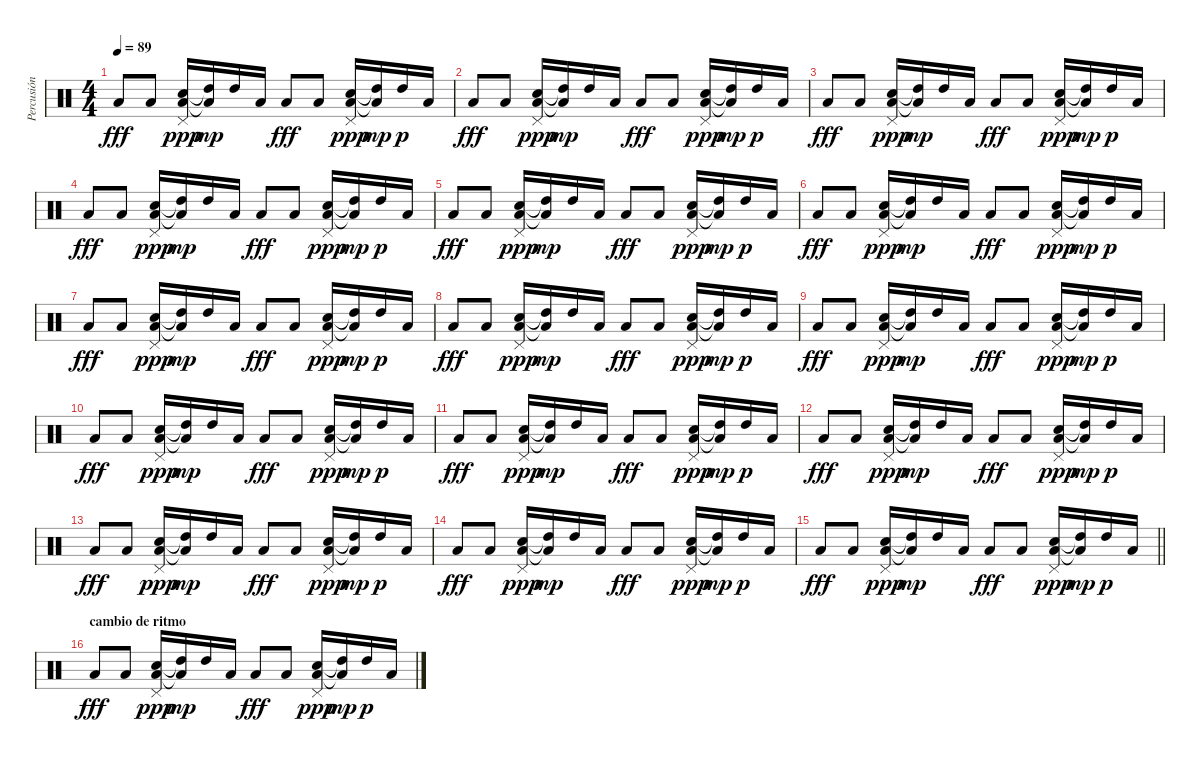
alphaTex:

\track ("Percusión" "Percusión") {instrument percussion}
\staff {score}
\articulation defaults
\ts (4 4)
\tempo 89
\clef neutral
\ks c "Low Floor Tom (hit)".8{dy fff} "Low Floor Tom (hit)".8
("Electric Snare (hit)" "Low Floor Tom (hit)" "Pedal Hi-Hat (hit)").16{dy ppp} ("High Tom (hit)"{t} "Low Floor Tom (hit)"{t}).16{dy mp} "High Tom (hit)".16 "Low Tom (hit)".16 "Low Floor Tom (hit)".8{dy fff} "Low Floor Tom (hit)".8 ("Electric Snare (hit)" "Low Floor Tom (hit)" "Pedal Hi-Hat (hit)").16{dy ppp} ("High Tom (hit)"{t} "Low Floor Tom (hit)"{t}).16{dy mp} "High Tom (hit)".16{dy p} "Low Tom (hit)".16 |
"Low Floor Tom (hit)".8{dy fff} "Low Floor Tom (hit)".8 ("Electric Snare (hit)" "Low Floor Tom (hit)" "Pedal Hi-Hat (hit)").16{dy ppp} ("High Tom (hit)"{t} "Low Floor Tom (hit)"{t}).16{dy mp} "High Tom (hit)".16 "Low Tom (hit)".16 "Low Floor Tom (hit)".8{dy fff} "Low Floor Tom (hit)".8 ("Electric Snare (hit)" "Low Floor Tom (hit)" "Pedal Hi-Hat (hit)").16{dy ppp} ("High Tom (hit)"{t} "Low Floor Tom (hit)"{t}).16{dy mp} "High Tom (hit)".16{dy p} "Low Tom (hit)".16 |
"Low Floor Tom (hit)".8{dy fff} "Low Floor Tom (hit)".8 ("Electric Snare (hit)" "Low Floor Tom (hit)" "Pedal Hi-Hat (hit)").16{dy ppp} ("High Tom (hit)"{t} "Low Floor Tom (hit)"{t}).16{dy mp} "High Tom (hit)".16 "Low Tom (hit)".16 "Low Floor Tom (hit)".8{dy fff} "Low Floor Tom (hit)".8 ("Electric Snare (hit)" "Low Floor Tom (hit)" "Pedal Hi-Hat (hit)").16{dy ppp} ("High Tom (hit)"{t} "Low Floor Tom (hit)"{t}).16{dy mp} "High Tom (hit)".16{dy p} "Low Tom (hit)".16 |
"Low Floor Tom (hit)".8{dy fff} "Low Floor Tom (hit)".8 ("Electric Snare (hit)" "Low Floor Tom (hit)" "Pedal Hi-Hat (hit)").16{dy ppp} ("High Tom (hit)"{t} "Low Floor Tom (hit)"{t}).16{dy mp} "High Tom (hit)".16 "Low Tom (hit)".16 "Low Floor Tom (hit)".8{dy fff} "Low Floor Tom (hit)".8 ("Electric Snare (hit)" "Low Floor Tom (hit)" "Pedal Hi-Hat (hit)").16{dy ppp} ("High Tom (hit)"{t} "Low Floor Tom (hit)"{t}).16{dy mp} "High Tom (hit)".16{dy p} "Low Tom (hit)".16 |
"Low Floor Tom (hit)".8{dy fff} "Low Floor Tom (hit)".8 ("Electric Snare (hit)" "Low Floor Tom (hit)" "Pedal Hi-Hat (hit)").16{dy ppp} ("High Tom (hit)"{t} "Low Floor Tom (hit)"{t}).16{dy mp} "High Tom (hit)".16 "Low Tom (hit)".16 "Low Floor Tom (hit)".8{dy fff} "Low Floor Tom (hit)".8 ("Electric Snare (hit)" "Low Floor Tom (hit)" "Pedal Hi-Hat (hit)").16{dy ppp} ("High Tom (hit)"{t} "Low Floor Tom (hit)"{t}).16{dy mp} "High Tom (hit)".16{dy p} "Low Tom (hit)".16 |
"Low Floor Tom (hit)".8{dy fff} "Low Floor Tom (hit)".8 ("Electric Snare (hit)" "Low Floor Tom (hit)" "Pedal Hi-Hat (hit)").16{dy ppp} ("High Tom (hit)"{t} "Low Floor Tom (hit)"{t}).16{dy mp} "High Tom (hit)".16 "Low Tom (hit)".16 "Low Floor Tom (hit)".8{dy fff} "Low Floor Tom (hit)".8 ("Electric Snare (hit)" "Low Floor Tom (hit)" "Pedal Hi-Hat (hit)").16{dy ppp} ("High Tom (hit)"{t} "Low Floor Tom (hit)"{t}).16{dy mp} "High Tom (hit)".16{dy p} "Low Tom (hit)".16 |
"Low Floor Tom (hit)".8{dy fff} "Low Floor Tom (hit)".8 ("Electric Snare (hit)" "Low Floor Tom (hit)" "Pedal Hi-Hat (hit)").16{dy ppp} ("High Tom (hit)"{t} "Low Floor Tom (hit)"{t}).16{dy mp} "High Tom (hit)".16 "Low Tom (hit)".16 "Low Floor Tom (hit)".8{dy fff} "Low Floor Tom (hit)".8 ("Electric Snare (hit)" "Low Floor Tom (hit)" "Pedal Hi-Hat (hit)").16{dy ppp} ("High Tom (hit)"{t} "Low Floor Tom (hit)"{t}).16{dy mp} "High Tom (hit)".16{dy p} "Low Tom (hit)".16 |
"Low Floor Tom (hit)".8{dy fff} "Low Floor Tom (hit)".8 ("Electric Snare (hit)" "Low Floor Tom (hit)" "Pedal Hi-Hat (hit)").16{dy ppp} ("High Tom (hit)"{t} "Low Floor Tom (hit)"{t}).16{dy mp} "High Tom (hit)".16 "Low Tom (hit)".16 "Low Floor Tom (hit)".8{dy fff} "Low Floor Tom (hit)".8 ("Electric Snare (hit)" "Low Floor Tom (hit)" "Pedal Hi-Hat (hit)").16{dy ppp} ("High Tom (hit)"{t} "Low Floor Tom (hit)"{t}).16{dy mp} "High Tom (hit)".16{dy p} "Low Tom (hit)".16 |
"Low Floor Tom (hit)".8{dy fff} "Low Floor Tom (hit)".8 ("Electric Snare (hit)" "Low Floor Tom (hit)" "Pedal Hi-Hat (hit)").16{dy ppp} ("High Tom (hit)"{t} "Low Floor Tom (hit)"{t}).16{dy mp} "High Tom (hit)".16 "Low Tom (hit)".16 "Low Floor Tom (hit)".8{dy fff} "Low Floor Tom (hit)".8 ("Electric Snare (hit)" "Low Floor Tom (hit)" "Pedal Hi-Hat (hit)").16{dy ppp} ("High Tom (hit)"{t} "Low Floor Tom (hit)"{t}).16{dy mp} "High Tom (hit)".16{dy p} "Low Tom (hit)".16 |
"Low Floor Tom (hit)".8{dy fff} "Low Floor Tom (hit)".8 ("Electric Snare (hit)" "Low Floor Tom (hit)" "Pedal Hi-Hat (hit)").16{dy ppp} ("High Tom (hit)"{t} "Low Floor Tom (hit)"{t}).16{dy mp} "High Tom (hit)".16 "Low Tom (hit)".16 "Low Floor Tom (hit)".8{dy fff} "Low Floor Tom (hit)".8 ("Electric Snare (hit)" "Low Floor Tom (hit)" "Pedal Hi-Hat (hit)").16{dy ppp} ("High Tom (hit)"{t} "Low Floor Tom (hit)"{t}).16{dy mp} "High Tom (hit)".16{dy p} "Low Tom (hit)".16 |
"Low Floor Tom (hit)".8{dy fff} "Low Floor Tom (hit)".8 ("Electric Snare (hit)" "Low Floor Tom (hit)" "Pedal Hi-Hat (hit)").16{dy ppp} ("High Tom (hit)"{t} "Low Floor Tom (hit)"{t}).16{dy mp} "High Tom (hit)".16 "Low Tom (hit)".16 "Low Floor Tom (hit)".8{dy fff} "Low Floor Tom (hit)".8 ("Electric Snare (hit)" "Low Floor Tom (hit)" "Pedal Hi-Hat (hit)").16{dy ppp} ("High Tom (hit)"{t} "Low Floor Tom (hit)"{t}).16{dy mp} "High Tom (hit)".16{dy p} "Low Tom (hit)".16 |
"Low Floor Tom (hit)".8{dy fff} "Low Floor Tom (hit)".8 ("Electric Snare (hit)" "Low Floor Tom (hit)" "Pedal Hi-Hat (hit)").16{dy ppp} ("High Tom (hit)"{t} "Low Floor Tom (hit)"{t}).16{dy mp} "High Tom (hit)".16 "Low Tom (hit)".16 "Low Floor Tom (hit)".8{dy fff} "Low Floor Tom (hit)".8 ("Electric Snare (hit)" "Low Floor Tom (hit)" "Pedal Hi-Hat (hit)").16{dy ppp} ("High Tom (hit)"{t} "Low Floor Tom (hit)"{t}).16{dy mp} "High Tom (hit)".16{dy p} "Low Tom (hit)".16 |
"Low Floor Tom (hit)".8{dy fff} "Low Floor Tom (hit)".8 ("Electric Snare (hit)" "Low Floor Tom (hit)" "Pedal Hi-Hat (hit)").16{dy ppp} ("High Tom (hit)"{t} "Low Floor Tom (hit)"{t}).16{dy mp} "High Tom (hit)".16 "Low Tom (hit)".16 "Low Floor Tom (hit)".8{dy fff} "Low Floor Tom (hit)".8 ("Electric Snare (hit)" "Low Floor Tom (hit)" "Pedal Hi-Hat (hit)").16{dy ppp} ("High Tom (hit)"{t} "Low Floor Tom (hit)"{t}).16{dy mp} "High Tom (hit)".16{dy p} "Low Tom (hit)".16 |
"Low Floor Tom (hit)".8{dy fff} "Low Floor Tom (hit)".8 ("Electric Snare (hit)" "Low Floor Tom (hit)" "Pedal Hi-Hat (hit)").16{dy ppp} ("High Tom (hit)"{t} "Low Floor Tom (hit)"{t}).16{dy mp} "High Tom (hit)".16 "Low Tom (hit)".16 "Low Floor Tom (hit)".8{dy fff} "Low Floor Tom (hit)".8 ("Electric Snare (hit)" "Low Floor Tom (hit)" "Pedal Hi-Hat (hit)").16{dy ppp} ("High Tom (hit)"{t} "Low Floor Tom (hit)"{t}).16{dy mp} "High Tom (hit)".16{dy p} "Low Tom (hit)".16 |
\barLineRight lightlight "Low Floor Tom (hit)".8{dy fff} "Low Floor Tom (hit)".8
("Electric Snare (hit)" "Low Floor Tom (hit)" "Pedal Hi-Hat (hit)").16{dy ppp} ("High Tom (hit)"{t} "Low Floor Tom (hit)"{t}).16{dy mp} "High Tom (hit)".16 "Low Tom (hit)".16 "Low Floor Tom (hit)".8{dy fff} "Low Floor Tom (hit)".8 ("Electric Snare (hit)" "Low Floor Tom (hit)" "Pedal Hi-Hat (hit)").16{dy ppp} ("High Tom (hit)"{t} "Low Floor Tom (hit)"{t}).16{dy mp} "High Tom (hit)".16{dy p} "Low Tom (hit)".16 |
\section ("" "cambio de ritmo")
"Low Floor Tom (hit)".8{dy fff} "Low Floor Tom (hit)".8 ("Electric Snare (hit)" "Low Floor Tom (hit)" "Pedal Hi-Hat (hit)").16{dy ppp} ("High Tom (hit)"{t} "Low Floor Tom (hit)"{t}).16{dy mp} "High Tom (hit)".16 "Low Tom (hit)".16 "Low Floor Tom (hit)".8{dy fff} "Low Floor Tom (hit)".8 ("Electric Snare (hit)" "Low Floor Tom (hit)" "Pedal Hi-Hat (hit)").16{dy ppp} ("High Tom (hit)"{t} "Low Floor Tom (hit)"{t}).16{dy mp} "High Tom (hit)".16{dy p} "Low Tom (hit)".16
